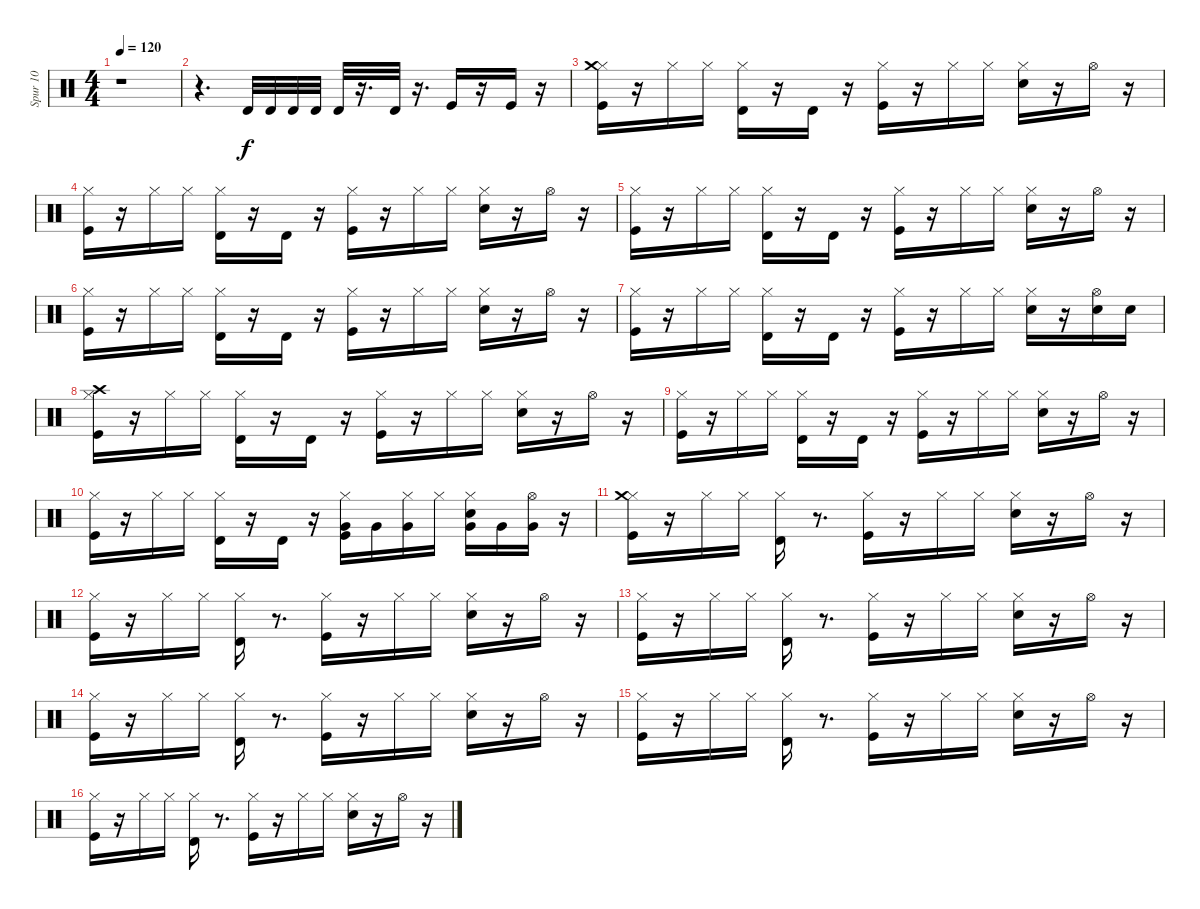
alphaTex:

\track ("Spur 10" "Spur 10") {instrument percussion}
\staff {score}
\articulation defaults
\ts (4 4)
\tempo 120
\clef neutral
\ks c
r.1{dy f} |
r.4{d} "Timbale high (hit)".32 "Timbale high (hit)".32 "Timbale high (hit)".32 "Timbale high (hit)".32 "Timbale high (hit)".32 r.16{d} "Timbale high (hit)".32 r.16{d} "Kick (hit)".16 r.16 "Kick (hit)".16 r.16 |
("Hi-Hat (closed)" "Kick (hit)" "Crash medium (hit)").16 r.16 "Hi-Hat (closed)".16 "Hi-Hat (closed)".16 ("Hi-Hat (closed)" "Timbale high (hit)").16 r.16 "Timbale high (hit)".16 r.16 ("Hi-Hat (closed)" "Kick (hit)").16 r.16 "Hi-Hat (closed)".16 "Hi-Hat (closed)".16 ("Hi-Hat (closed)" "Snare (hit) 2").16 r.16 "Hi-Hat (open)".16 r.16 |
("Hi-Hat (closed)" "Kick (hit)").16 r.16 "Hi-Hat (closed)".16 "Hi-Hat (closed)".16 ("Hi-Hat (closed)" "Timbale high (hit)").16 r.16 "Timbale high (hit)".16 r.16 ("Hi-Hat (closed)" "Kick (hit)").16 r.16 "Hi-Hat (closed)".16 "Hi-Hat (closed)".16 ("Hi-Hat (closed)" "Snare (hit) 2").16 r.16 "Hi-Hat (open)".16 r.16 |
("Hi-Hat (closed)" "Kick (hit)").16 r.16 "Hi-Hat (closed)".16 "Hi-Hat (closed)".16 ("Hi-Hat (closed)" "Timbale high (hit)").16 r.16 "Timbale high (hit)".16 r.16 ("Hi-Hat (closed)" "Kick (hit)").16 r.16 "Hi-Hat (closed)".16 "Hi-Hat (closed)".16 ("Hi-Hat (closed)" "Snare (hit) 2").16 r.16 "Hi-Hat (open)".16 r.16 |
("Hi-Hat (closed)" "Kick (hit)").16 r.16 "Hi-Hat (closed)".16 "Hi-Hat (closed)".16 ("Hi-Hat (closed)" "Timbale high (hit)").16 r.16 "Timbale high (hit)".16 r.16 ("Hi-Hat (closed)" "Kick (hit)").16 r.16 "Hi-Hat (closed)".16 "Hi-Hat (closed)".16 ("Hi-Hat (closed)" "Snare (hit) 2").16 r.16 "Hi-Hat (open)".16 r.16 |
("Hi-Hat (closed)" "Kick (hit)").16 r.16 "Hi-Hat (closed)".16 "Hi-Hat (closed)".16 ("Hi-Hat (closed)" "Timbale high (hit)").16 r.16 "Timbale high (hit)".16 r.16 ("Hi-Hat (closed)" "Kick (hit)").16 r.16 "Hi-Hat (closed)".16 "Hi-Hat (closed)".16 ("Hi-Hat (closed)" "Snare (hit) 2").16 r.16 ("Snare (hit) 2" "Hi-Hat (open)").16 "Snare (hit) 2".16 |
("Crash high (hit)" "Hi-Hat (closed)" "Kick (hit)").16 r.16 "Hi-Hat (closed)".16 "Hi-Hat (closed)".16 ("Hi-Hat (closed)" "Timbale high (hit)").16 r.16 "Timbale high (hit)".16 r.16 ("Hi-Hat (closed)" "Kick (hit)").16 r.16 "Hi-Hat (closed)".16 "Hi-Hat (closed)".16 ("Hi-Hat (closed)" "Snare (hit) 2").16 r.16 "Hi-Hat (open)".16 r.16 |
("Hi-Hat (closed)" "Kick (hit)").16 r.16 "Hi-Hat (closed)".16 "Hi-Hat (closed)".16 ("Hi-Hat (closed)" "Timbale high (hit)").16 r.16 "Timbale high (hit)".16 r.16 ("Hi-Hat (closed)" "Kick (hit)").16 r.16 "Hi-Hat (closed)".16 "Hi-Hat (closed)".16 ("Hi-Hat (closed)" "Snare (hit) 2").16 r.16 "Hi-Hat (open)".16 r.16 |
("Hi-Hat (closed)" "Kick (hit)").16 r.16 "Hi-Hat (closed)".16 "Hi-Hat (closed)".16 ("Hi-Hat (closed)" "Timbale high (hit)").16 r.16 "Timbale high (hit)".16 r.16 ("Very Low Tom (hit)" "Hi-Hat (closed)" "Kick (hit)").16 "Very Low Tom (hit)".16 ("Very Low Tom (hit)" "Hi-Hat (closed)").16 "Hi-Hat (closed)".16 ("Very Low Tom (hit)" "Hi-Hat (closed)" "Snare (hit) 2").16 "Very Low Tom (hit)".16 ("Very Low Tom (hit)" "Hi-Hat (open)").16 r.16 |
("Hi-Hat (closed)" "Kick (hit)" "Crash medium (hit)").16 r.16 "Hi-Hat (closed)".16 "Hi-Hat (closed)".16 ("Hi-Hat (closed)" "Timbale high (hit)").16 r.8{d} ("Hi-Hat (closed)" "Kick (hit)").16 r.16 "Hi-Hat (closed)".16 "Hi-Hat (closed)".16 ("Hi-Hat (closed)" "Snare (hit) 2").16 r.16 "Hi-Hat (open)".16 r.16 |
("Hi-Hat (closed)" "Kick (hit)").16 r.16 "Hi-Hat (closed)".16 "Hi-Hat (closed)".16 ("Hi-Hat (closed)" "Timbale high (hit)").16 r.8{d} ("Hi-Hat (closed)" "Kick (hit)").16 r.16 "Hi-Hat (closed)".16 "Hi-Hat (closed)".16 ("Hi-Hat (closed)" "Snare (hit) 2").16 r.16 "Hi-Hat (open)".16 r.16 |
("Hi-Hat (closed)" "Kick (hit)").16 r.16 "Hi-Hat (closed)".16 "Hi-Hat (closed)".16 ("Hi-Hat (closed)" "Timbale high (hit)").16 r.8{d} ("Hi-Hat (closed)" "Kick (hit)").16 r.16 "Hi-Hat (closed)".16 "Hi-Hat (closed)".16 ("Hi-Hat (closed)" "Snare (hit) 2").16 r.16 "Hi-Hat (open)".16 r.16 |
("Hi-Hat (closed)" "Kick (hit)").16 r.16 "Hi-Hat (closed)".16 "Hi-Hat (closed)".16 ("Hi-Hat (closed)" "Timbale high (hit)").16 r.8{d} ("Hi-Hat (closed)" "Kick (hit)").16 r.16 "Hi-Hat (closed)".16 "Hi-Hat (closed)".16 ("Hi-Hat (closed)" "Snare (hit) 2").16 r.16 "Hi-Hat (open)".16 r.16 |
("Hi-Hat (closed)" "Kick (hit)").16 r.16 "Hi-Hat (closed)".16 "Hi-Hat (closed)".16 ("Hi-Hat (closed)" "Timbale high (hit)").16 r.8{d} ("Hi-Hat (closed)" "Kick (hit)").16 r.16 "Hi-Hat (closed)".16 "Hi-Hat (closed)".16 ("Hi-Hat (closed)" "Snare (hit) 2").16 r.16 "Hi-Hat (open)".16 r.16 |
("Hi-Hat (closed)" "Kick (hit)").16 r.16 "Hi-Hat (closed)".16 "Hi-Hat (closed)".16 ("Hi-Hat (closed)" "Timbale high (hit)").16 r.8{d} ("Hi-Hat (closed)" "Kick (hit)").16 r.16 "Hi-Hat (closed)".16 "Hi-Hat (closed)".16 ("Hi-Hat (closed)" "Snare (hit) 2").16 r.16 "Hi-Hat (open)".16 r.16
